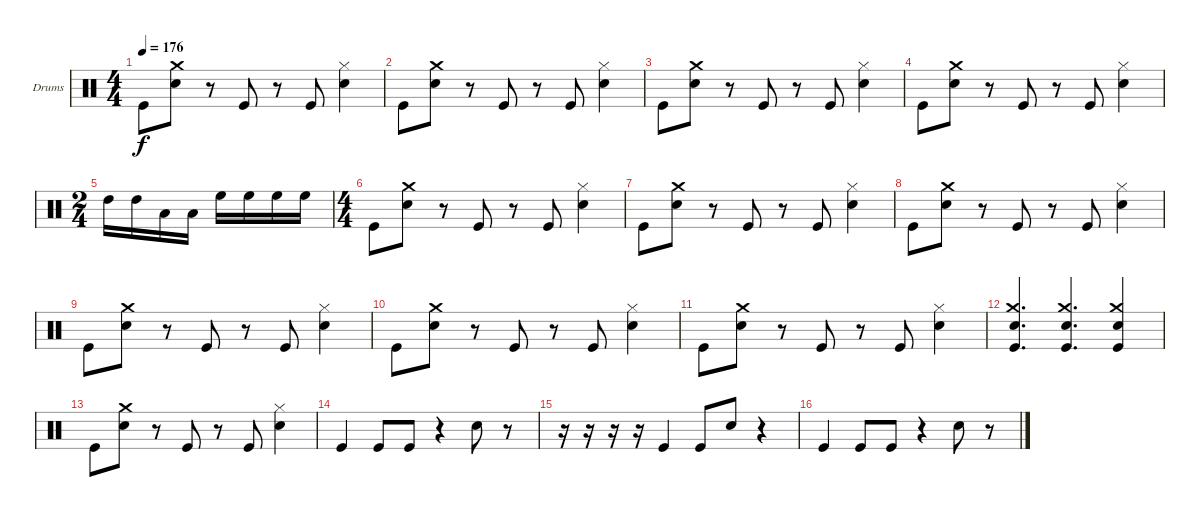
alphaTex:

\bracketExtendMode groupsimilarinstruments
\firstSystemTrackNameOrientation horizontal
\otherSystemsTrackNameOrientation horizontal
\track ("Drumkit" "Drums") {instrument percussion}
\staff {score}
\articulation defaults
\ts (4 4)
\tempo 176
\clef neutral
\ks c "Kick (hit)".8{dy f}
("Crash medium (hit)" "Snare (hit) 2").8 r.8 "Kick (hit)".8 r.8 "Kick (hit)".8 ("Hi-Hat (closed)" "Snare (hit) 2").4 |
"Kick (hit)".8 ("Crash medium (hit)" "Snare (hit) 2").8 r.8 "Kick (hit)".8 r.8 "Kick (hit)".8 ("Hi-Hat (closed)" "Snare (hit) 2").4 |
"Kick (hit)".8 ("Crash medium (hit)" "Snare (hit) 2").8 r.8 "Kick (hit)".8 r.8 "Kick (hit)".8 ("Hi-Hat (closed)" "Snare (hit) 2").4 |
"Kick (hit)".8 ("Crash medium (hit)" "Snare (hit) 2").8 r.8 "Kick (hit)".8 r.8 "Kick (hit)".8 ("Hi-Hat (closed)" "Snare (hit) 2").4 |
\ts (2 4)
\beaming (8 2 2)
"High Tom (hit)".16 "High Tom (hit)".16 "Low Tom (hit)".16 "Low Tom (hit)".16 "High Floor Tom (hit)".16 "High Floor Tom (hit)".16 "High Floor Tom (hit)".16 "High Floor Tom (hit)".16 |
\ts (4 4)
\beaming (8 2 2 2 2)
"Kick (hit)".8 ("Crash medium (hit)" "Snare (hit) 2").8 r.8 "Kick (hit)".8 r.8 "Kick (hit)".8 ("Hi-Hat (closed)" "Snare (hit) 2").4 |
"Kick (hit)".8 ("Crash medium (hit)" "Snare (hit) 2").8 r.8 "Kick (hit)".8 r.8 "Kick (hit)".8 ("Hi-Hat (closed)" "Snare (hit) 2").4 |
"Kick (hit)".8 ("Crash medium (hit)" "Snare (hit) 2").8 r.8 "Kick (hit)".8 r.8 "Kick (hit)".8 ("Hi-Hat (closed)" "Snare (hit) 2").4 |
"Kick (hit)".8 ("Crash medium (hit)" "Snare (hit) 2").8 r.8 "Kick (hit)".8 r.8 "Kick (hit)".8 ("Hi-Hat (closed)" "Snare (hit) 2").4 |
"Kick (hit)".8 ("Crash medium (hit)" "Snare (hit) 2").8 r.8 "Kick (hit)".8 r.8 "Kick (hit)".8 ("Hi-Hat (closed)" "Snare (hit) 2").4 |
"Kick (hit)".8 ("Crash medium (hit)" "Snare (hit) 2").8 r.8 "Kick (hit)".8 r.8 "Kick (hit)".8 ("Hi-Hat (closed)" "Snare (hit) 2").4 |
("Crash medium (hit)" "Snare (hit) 2" "Kick (hit)").4{d} ("Crash medium (hit)" "Snare (hit) 2" "Kick (hit)").4{d} ("Crash medium (hit)" "Snare (hit) 2" "Kick (hit)").4 |
"Kick (hit)".8 ("Crash medium (hit)" "Snare (hit) 2").8 r.8 "Kick (hit)".8 r.8 "Kick (hit)".8 ("Hi-Hat (closed)" "Snare (hit) 2").4 |
"Kick (hit)".4 "Kick (hit)".8 "Kick (hit)".8 r.4 "Snare (hit) 2".8 r.8 |
r.16 r.16 r.16 r.16 "Kick (hit)".4 "Kick (hit)".8 "Snare (hit) 2".8 r.4 |
"Kick (hit)".4 "Kick (hit)".8 "Kick (hit)".8 r.4 "Snare (hit) 2".8 r.8
